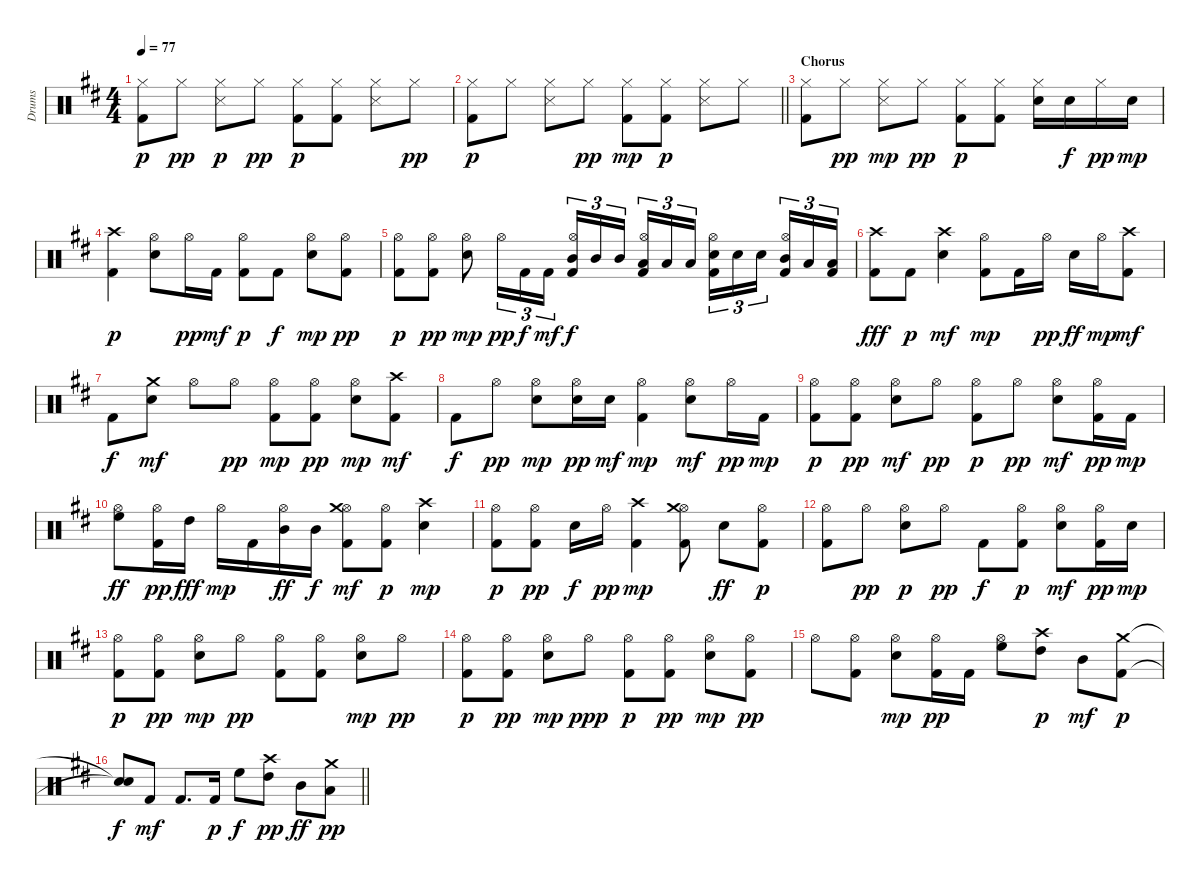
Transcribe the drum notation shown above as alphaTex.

\track ("Drums" "Drums") {instrument percussion}
\staff {score}
\articulation defaults
\ts (4 4)
\tempo 77
\clef neutral
\ks d
("Kick (hit) 2" "Hi-Hat (closed)").8{dy p} "Hi-Hat (closed)".8{dy pp} ("Snare (side stick) 3" "Hi-Hat (closed)").8{dy p} "Hi-Hat (closed)".8{dy pp} ("Kick (hit) 2" "Hi-Hat (closed)").8{dy p} ("Kick (hit) 2" "Hi-Hat (closed)").8 ("Snare (side stick) 3" "Hi-Hat (closed)").8 "Hi-Hat (closed)".8{dy pp} |
\barLineRight lightlight
("Kick (hit) 2" "Hi-Hat (closed)").8{dy p} "Hi-Hat (closed)".8 ("Snare (side stick) 3" "Hi-Hat (closed)").8 "Hi-Hat (closed)".8{dy pp} ("Kick (hit) 2" "Hi-Hat (closed)").8{dy mp} ("Kick (hit) 2" "Hi-Hat (closed)").8{dy p} ("Snare (side stick) 3" "Hi-Hat (closed)").8 "Hi-Hat (closed)".8 |
\section ("" "Chorus")
("Kick (hit) 2" "Hi-Hat (closed)").8 "Hi-Hat (closed)".8{dy pp} ("Snare (side stick) 3" "Hi-Hat (closed)").8{dy mp} "Hi-Hat (closed)".8{dy pp} ("Kick (hit) 2" "Hi-Hat (closed)").8{dy p} ("Kick (hit) 2" "Hi-Hat (closed)").8 ("Snare (hit) 2" "Hi-Hat (closed)").16 "Snare (hit) 2".16{dy f} "Hi-Hat (closed)".16{dy pp} "Snare (hit) 2".16{dy mp} |
("Kick (hit) 2" "Crash high (hit)").4{dy p} ("Snare (hit) 2" "Hi-Hat (open)").8 "Hi-Hat (open)".16{dy pp} "Kick (hit) 2".16{dy mf} ("Kick (hit) 2" "Hi-Hat (open)").8{dy p} "Kick (hit) 2".8{dy f} ("Snare (hit) 2" "Hi-Hat (open)").8{dy mp} ("Kick (hit) 2" "Hi-Hat (open)").8{dy pp} |
("Kick (hit) 2" "Hi-Hat (open)").8{dy p} ("Kick (hit) 2" "Hi-Hat (open)").8{dy pp} ("Snare (hit) 2" "Hi-Hat (open)").8{dy mp} "Hi-Hat (open)".16{tu (3 2) dy pp} "Kick (hit) 2".16{tu (3 2) dy f} "Kick (hit) 2".16{tu (3 2) dy mf} ("Mid Tom (hit)" "Hi-Hat (open)" "Kick (hit) 2").16{tu (3 2) dy f} "Mid Tom (hit)".16{tu (3 2)} "Mid Tom (hit)".16{tu (3 2) beam splitsecondary} ("Low Tom (hit)" "Hi-Hat (open)" "Kick (hit) 2").16{tu (3 2)} "Low Tom (hit)".16{tu (3 2)} "Low Tom (hit)".16{tu (3 2)} ("Snare (hit) 2" "Hi-Hat (open)" "Kick (hit) 2").16{tu (3 2)} "Snare (hit) 2".16{tu (3 2)} "Snare (hit) 2".16{tu (3 2) beam splitsecondary} ("Mid Tom (hit)" "Hi-Hat (open)" "Kick (hit) 2").16{tu (3 2)} "Low Tom (hit)".16{tu (3 2)} ("Low Floor Tom (hit)" "Kick (hit) 2").16{tu (3 2)} |
("Kick (hit) 2" "Crash high (hit)").8{dy fff} "Kick (hit) 2".8{dy p} ("Snare (hit) 2" "Crash high (hit)").4{dy mf} ("Kick (hit) 2" "Hi-Hat (open)").8{dy mp} "Kick (hit) 2".16 "Hi-Hat (open)".16{dy pp} "Snare (hit) 2".16{dy ff} "Hi-Hat (open)".16{dy mp} ("Kick (hit) 2" "Crash high (hit)").8{dy mf} |
"Kick (hit) 2".8{dy f} ("Snare (hit) 2" "Crash medium (hit)").8{dy mf} "Hi-Hat (open)".8 "Hi-Hat (open)".8{dy pp} ("Kick (hit) 2" "Hi-Hat (open)").8{dy mp} ("Kick (hit) 2" "Hi-Hat (open)").8{dy pp} ("Snare (hit) 2" "Hi-Hat (open)").8{dy mp} ("Kick (hit) 2" "Crash high (hit)").8{dy mf} |
"Kick (hit) 2".8{dy f} "Hi-Hat (open)".8{dy pp} ("Snare (hit) 2" "Hi-Hat (open)").8{dy mp} ("Snare (hit) 2" "Hi-Hat (open)").16{dy pp} "Snare (hit) 2".16{dy mf} ("Kick (hit) 2" "Hi-Hat (open)").4{dy mp} ("Snare (hit) 2" "Hi-Hat (open)").8{dy mf} "Hi-Hat (open)".16{dy pp} "Kick (hit) 2".16{dy mp} |
("Kick (hit) 2" "Hi-Hat (open)").8{dy p} ("Kick (hit) 2" "Hi-Hat (open)").8{dy pp} ("Snare (hit) 2" "Hi-Hat (open)").8{dy mf} "Hi-Hat (open)".8{dy pp} ("Kick (hit) 2" "Hi-Hat (open)").8{dy p} "Hi-Hat (open)".8{dy pp} ("Snare (hit) 2" "Hi-Hat (open)").8{dy mf} ("Kick (hit) 2" "Hi-Hat (open)").16{dy pp} "Kick (hit) 2".16{dy mp} |
("Hi-Hat (open)" "High Floor Tom (hit)").8{dy ff} ("Kick (hit) 2" "Hi-Hat (open)").16{dy pp} "High Tom (hit)".16{dy fff} "Hi-Hat (open)".16{dy mp} "Kick (hit) 2".16 ("Hi-Hat (open)" "Mid Tom (hit)").16{dy ff} "Mid Tom (hit)".16{dy f} ("Kick (hit) 2" "Hi-Hat (open)" "Crash medium (hit)").8{dy mf} ("Kick (hit) 2" "Hi-Hat (open)").8{dy p} ("Snare (hit) 2" "Crash high (hit)").4{dy mp} |
("Kick (hit) 2" "Hi-Hat (open)").8{dy p} ("Kick (hit) 2" "Hi-Hat (open)").8{dy pp} "Snare (hit) 2".16{dy f} "Hi-Hat (open)".16{dy pp} ("Kick (hit) 2" "Crash high (hit)").4{dy mp} ("Kick (hit) 2" "Hi-Hat (open)" "Crash medium (hit)").8 "Snare (hit) 2".8{dy ff} ("Kick (hit) 2" "Hi-Hat (open)").8{dy p} |
("Kick (hit) 2" "Hi-Hat (open)").8 "Hi-Hat (open)".8{dy pp} ("Snare (hit) 2" "Hi-Hat (open)").8{dy p} "Hi-Hat (open)".8{dy pp} "Kick (hit) 2".8{dy f} ("Kick (hit) 2" "Hi-Hat (open)").8{dy p} ("Snare (hit) 2" "Hi-Hat (open)").8{dy mf} ("Kick (hit) 2" "Hi-Hat (open)").16{dy pp} "Snare (hit) 2".16{dy mp} |
("Kick (hit) 2" "Hi-Hat (open)").8{dy p} ("Kick (hit) 2" "Hi-Hat (open)").8{dy pp} ("Snare (hit) 2" "Hi-Hat (open)").8{dy mp} "Hi-Hat (open)".8{dy pp} ("Kick (hit) 2" "Hi-Hat (open)").8 ("Kick (hit) 2" "Hi-Hat (open)").8 ("Snare (hit) 2" "Hi-Hat (open)").8{dy mp} "Hi-Hat (open)".8{dy pp} |
("Kick (hit) 2" "Hi-Hat (open)").8{dy p} ("Kick (hit) 2" "Hi-Hat (open)").8{dy pp} ("Snare (hit) 2" "Hi-Hat (open)").8{dy mp} "Hi-Hat (open)".8{dy ppp} ("Kick (hit) 2" "Hi-Hat (open)").8{dy p} ("Kick (hit) 2" "Hi-Hat (open)").8{dy pp} ("Snare (hit) 2" "Hi-Hat (open)").8{dy mp} ("Kick (hit) 2" "Hi-Hat (open)").8{dy pp} |
"Hi-Hat (open)".8 ("Kick (hit) 2" "Hi-Hat (open)").8 ("Snare (hit) 2" "Hi-Hat (open)").8{dy mp} ("Kick (hit) 2" "Hi-Hat (open)").16{dy pp} "Kick (hit) 2".16 ("Hi-Hat (open)" "High Floor Tom (hit)").8 ("High Tom (hit)" "Crash high (hit)").8{dy p} "Mid Tom (hit)".8{dy mf} ("Kick (hit) 2" "Crash medium (hit)").8{dy p} |
\barLineRight lightlight
("Snare (hit)"{t} "Snare (hit)"{t}).8{dy f} "Kick (hit) 2".8{dy mf} "Kick (hit) 2".8{d} "Kick (hit) 2".16{dy p} "High Floor Tom (hit)".8{dy f} ("High Tom (hit)" "Crash high (hit)").8{dy pp} "Mid Tom (hit)".8{dy ff} ("Low Tom (hit)" "Crash medium (hit)").8{dy pp}
